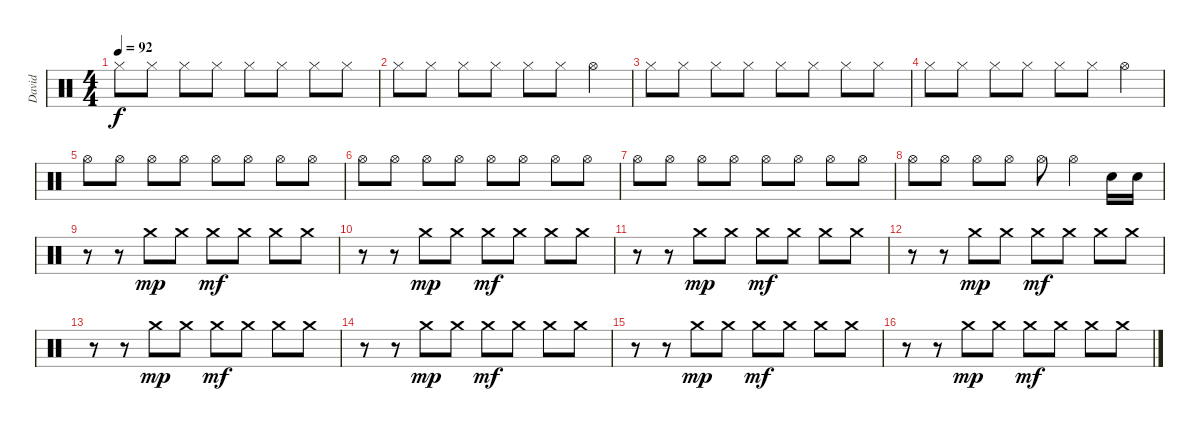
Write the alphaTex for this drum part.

\track ("David" "David") {instrument percussion}
\staff {score}
\articulation defaults
\ts (4 4)
\tempo 92
\clef neutral
\ks c "Hi-Hat (closed)".8{dy f} "Hi-Hat (closed)".8 "Hi-Hat (closed)".8 "Hi-Hat (closed)".8 "Hi-Hat (closed)".8 "Hi-Hat (closed)".8 "Hi-Hat (closed)".8 "Hi-Hat (closed)".8
|
"Hi-Hat (closed)".8 "Hi-Hat (closed)".8 "Hi-Hat (closed)".8 "Hi-Hat (closed)".8 "Hi-Hat (closed)".8 "Hi-Hat (closed)".8 "Hi-Hat (open)".4 |
"Hi-Hat (closed)".8 "Hi-Hat (closed)".8 "Hi-Hat (closed)".8 "Hi-Hat (closed)".8 "Hi-Hat (closed)".8 "Hi-Hat (closed)".8 "Hi-Hat (closed)".8 "Hi-Hat (closed)".8 |
"Hi-Hat (closed)".8 "Hi-Hat (closed)".8 "Hi-Hat (closed)".8 "Hi-Hat (closed)".8 "Hi-Hat (closed)".8 "Hi-Hat (closed)".8 "Hi-Hat (open)".4 |
"Hi-Hat (open)".8 "Hi-Hat (open)".8 "Hi-Hat (open)".8 "Hi-Hat (open)".8 "Hi-Hat (open)".8 "Hi-Hat (open)".8 "Hi-Hat (open)".8 "Hi-Hat (open)".8 |
"Hi-Hat (open)".8 "Hi-Hat (open)".8 "Hi-Hat (open)".8 "Hi-Hat (open)".8 "Hi-Hat (open)".8 "Hi-Hat (open)".8 "Hi-Hat (open)".8 "Hi-Hat (open)".8 |
"Hi-Hat (open)".8 "Hi-Hat (open)".8 "Hi-Hat (open)".8 "Hi-Hat (open)".8 "Hi-Hat (open)".8 "Hi-Hat (open)".8 "Hi-Hat (open)".8 "Hi-Hat (open)".8 |
"Hi-Hat (open)".8 "Hi-Hat (open)".8 "Hi-Hat (open)".8 "Hi-Hat (open)".8 "Hi-Hat (open)".8 "Hi-Hat (open)".4 "Snare (hit) 2".16 "Snare (hit) 2".16 |
r.8 r.8 "Crash medium (hit)".8{dy mp} "Crash medium (hit)".8 "Crash medium (hit)".8{dy mf} "Crash medium (hit)".8 "Crash medium (hit)".8 "Crash medium (hit)".8 |
r.8 r.8 "Crash medium (hit)".8{dy mp} "Crash medium (hit)".8 "Crash medium (hit)".8{dy mf} "Crash medium (hit)".8 "Crash medium (hit)".8 "Crash medium (hit)".8 |
r.8 r.8 "Crash medium (hit)".8{dy mp} "Crash medium (hit)".8 "Crash medium (hit)".8{dy mf} "Crash medium (hit)".8 "Crash medium (hit)".8 "Crash medium (hit)".8 |
r.8 r.8 "Crash medium (hit)".8{dy mp} "Crash medium (hit)".8 "Crash medium (hit)".8{dy mf} "Crash medium (hit)".8 "Crash medium (hit)".8 "Crash medium (hit)".8 |
r.8 r.8 "Crash medium (hit)".8{dy mp} "Crash medium (hit)".8 "Crash medium (hit)".8{dy mf} "Crash medium (hit)".8 "Crash medium (hit)".8 "Crash medium (hit)".8 |
r.8 r.8 "Crash medium (hit)".8{dy mp} "Crash medium (hit)".8 "Crash medium (hit)".8{dy mf} "Crash medium (hit)".8 "Crash medium (hit)".8 "Crash medium (hit)".8 |
r.8 r.8 "Crash medium (hit)".8{dy mp} "Crash medium (hit)".8 "Crash medium (hit)".8{dy mf} "Crash medium (hit)".8 "Crash medium (hit)".8 "Crash medium (hit)".8 |
r.8 r.8 "Crash medium (hit)".8{dy mp} "Crash medium (hit)".8 "Crash medium (hit)".8{dy mf} "Crash medium (hit)".8 "Crash medium (hit)".8 "Crash medium (hit)".8
